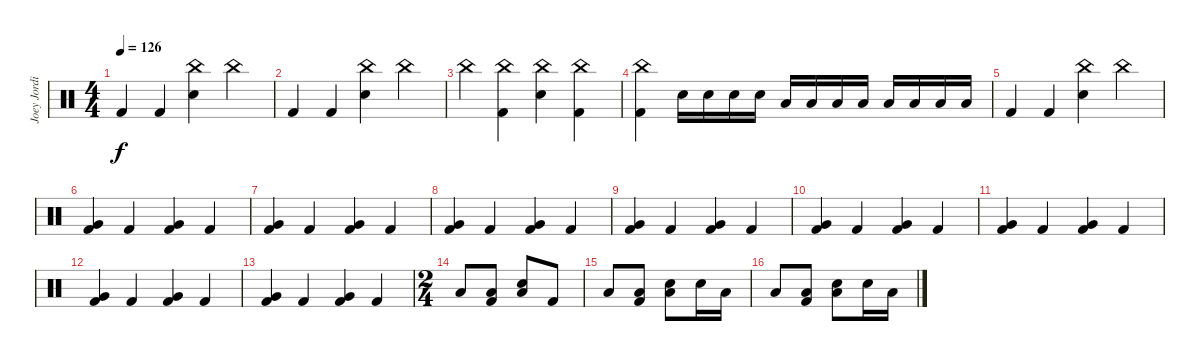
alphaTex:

\track ("Joey Jordison" "Joey Jordi") {instrument percussion}
\staff {score}
\articulation defaults
\ts (4 4)
\tempo 126
\clef neutral
\ks c "Kick (hit) 2".4{dy f} "Kick (hit) 2".4
("China (hit)" "Snare (hit) 2").4 "China (hit)".4 |
"Kick (hit) 2".4 "Kick (hit) 2".4 ("China (hit)" "Snare (hit) 2").4 "China (hit)".4 |
"China (hit)".4 ("China (hit)" "Kick (hit) 2").4 ("China (hit)" "Snare (hit) 2").4 ("China (hit)" "Kick (hit) 2").4 |
("China (hit)" "Kick (hit) 2").4 "Snare (hit) 2".16 "Snare (hit) 2".16 "Snare (hit) 2".16 "Snare (hit) 2".16 "Low Tom (hit)".16 "Low Tom (hit)".16 "Low Tom (hit)".16 "Low Tom (hit)".16 "Low Tom (hit)".16 "Low Tom (hit)".16 "Low Tom (hit)".16 "Low Tom (hit)".16 |
"Kick (hit) 2".4 "Kick (hit) 2".4 ("China (hit)" "Snare (hit) 2").4 "China (hit)".4 |
("Kick (hit) 2" "Very Low Tom (hit)").4 "Kick (hit) 2".4 ("Kick (hit) 2" "Very Low Tom (hit)").4 "Kick (hit) 2".4 |
("Kick (hit) 2" "Very Low Tom (hit)").4 "Kick (hit) 2".4 ("Kick (hit) 2" "Very Low Tom (hit)").4 "Kick (hit) 2".4 |
("Kick (hit) 2" "Very Low Tom (hit)").4 "Kick (hit) 2".4 ("Kick (hit) 2" "Very Low Tom (hit)").4 "Kick (hit) 2".4 |
("Kick (hit) 2" "Very Low Tom (hit)").4 "Kick (hit) 2".4 ("Kick (hit) 2" "Very Low Tom (hit)").4 "Kick (hit) 2".4 |
("Kick (hit) 2" "Very Low Tom (hit)").4 "Kick (hit) 2".4 ("Kick (hit) 2" "Very Low Tom (hit)").4 "Kick (hit) 2".4 |
("Kick (hit) 2" "Very Low Tom (hit)").4 "Kick (hit) 2".4 ("Kick (hit) 2" "Very Low Tom (hit)").4 "Kick (hit) 2".4 |
("Kick (hit) 2" "Very Low Tom (hit)").4 "Kick (hit) 2".4 ("Kick (hit) 2" "Very Low Tom (hit)").4 "Kick (hit) 2".4 |
("Kick (hit) 2" "Very Low Tom (hit)").4 "Kick (hit) 2".4 ("Kick (hit) 2" "Very Low Tom (hit)").4 "Kick (hit) 2".4 |
\ts (2 4)
"Low Tom (hit)".8 ("Low Tom (hit)" "Kick (hit) 2").8 ("Low Tom (hit)" "Snare (hit) 2").8 "Kick (hit) 2".8 |
"Low Tom (hit)".8 ("Low Tom (hit)" "Kick (hit) 2").8 ("Low Tom (hit)" "Snare (hit) 2").8 "Snare (hit) 2".16 "Low Tom (hit)".16 |
"Low Tom (hit)".8 ("Low Tom (hit)" "Kick (hit) 2").8 ("Low Tom (hit)" "Snare (hit) 2").8 "Snare (hit) 2".16 "Low Tom (hit)".16
